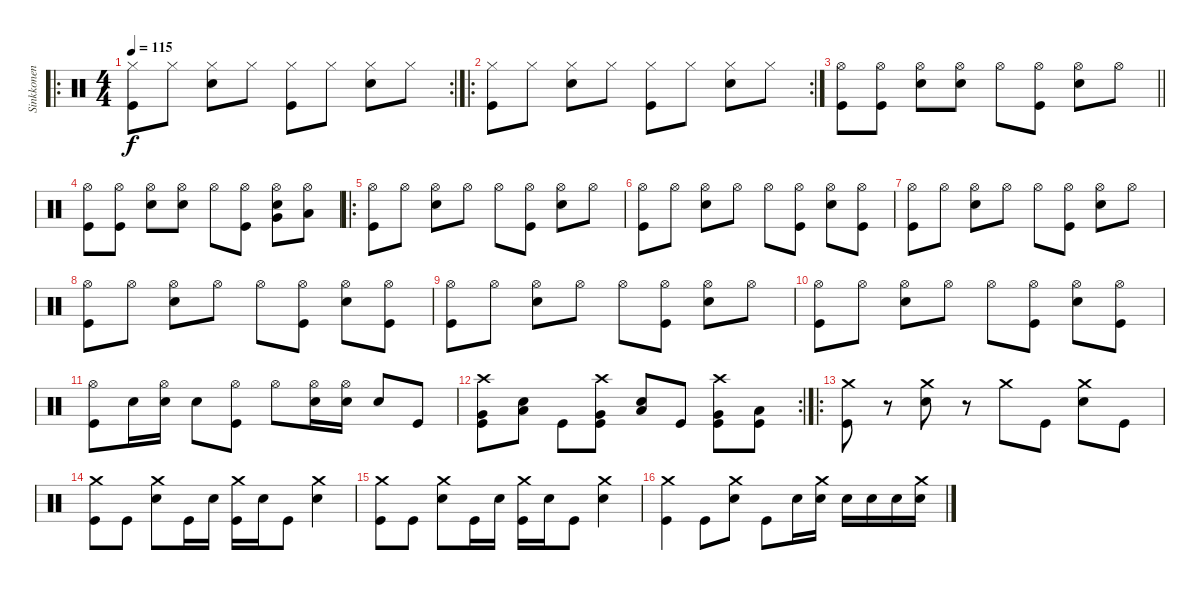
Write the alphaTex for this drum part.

\track ("Sinkkonen" "Sinkkonen") {instrument percussion}
\staff {score}
\articulation defaults
\ro
\rc 2
\ts (4 4)
\tempo 115
\clef neutral
\ks c
("Hi-Hat (closed)" "Kick (hit)").8{dy f} "Hi-Hat (closed)".8 ("Hi-Hat (closed)" "Snare (hit) 2").8 "Hi-Hat (closed)".8 ("Hi-Hat (closed)" "Kick (hit)").8 "Hi-Hat (closed)".8 ("Hi-Hat (closed)" "Snare (hit) 2").8 "Hi-Hat (closed)".8 |
\ro
\rc 2
("Hi-Hat (closed)" "Kick (hit)").8 "Hi-Hat (closed)".8 ("Hi-Hat (closed)" "Snare (hit) 2").8 "Hi-Hat (closed)".8 ("Hi-Hat (closed)" "Kick (hit)").8 "Hi-Hat (closed)".8 ("Hi-Hat (closed)" "Snare (hit) 2").8 "Hi-Hat (closed)".8 |
\barLineRight lightlight
("Hi-Hat (open)" "Kick (hit)").8 ("Hi-Hat (open)" "Kick (hit)").8 ("Hi-Hat (open)" "Snare (hit) 2").8 ("Hi-Hat (open)" "Snare (hit) 2").8 "Hi-Hat (open)".8 ("Hi-Hat (open)" "Kick (hit)").8 ("Hi-Hat (open)" "Snare (hit) 2").8 "Hi-Hat (open)".8 |
("Hi-Hat (open)" "Kick (hit)").8 ("Hi-Hat (open)" "Kick (hit)").8 ("Hi-Hat (open)" "Snare (hit) 2").8 ("Hi-Hat (open)" "Snare (hit) 2").8 "Hi-Hat (open)".8 ("Hi-Hat (open)" "Kick (hit)").8 ("Hi-Hat (open)" "Very Low Tom (hit)" "Snare (hit) 2").8 ("Hi-Hat (open)" "Low Floor Tom (hit)").8 |
\ro
("Hi-Hat (open)" "Kick (hit)").8 "Hi-Hat (open)".8 ("Hi-Hat (open)" "Snare (hit) 2").8 "Hi-Hat (open)".8 "Hi-Hat (open)".8 ("Hi-Hat (open)" "Kick (hit)").8 ("Hi-Hat (open)" "Snare (hit) 2").8 "Hi-Hat (open)".8 |
("Hi-Hat (open)" "Kick (hit)").8 "Hi-Hat (open)".8 ("Hi-Hat (open)" "Snare (hit) 2").8 "Hi-Hat (open)".8 "Hi-Hat (open)".8 ("Hi-Hat (open)" "Kick (hit)").8 ("Hi-Hat (open)" "Snare (hit) 2").8 ("Hi-Hat (open)" "Kick (hit)").8 |
("Hi-Hat (open)" "Kick (hit)").8 "Hi-Hat (open)".8 ("Hi-Hat (open)" "Snare (hit) 2").8 "Hi-Hat (open)".8 "Hi-Hat (open)".8 ("Hi-Hat (open)" "Kick (hit)").8 ("Hi-Hat (open)" "Snare (hit) 2").8 "Hi-Hat (open)".8 |
("Hi-Hat (open)" "Kick (hit)").8 "Hi-Hat (open)".8 ("Hi-Hat (open)" "Snare (hit) 2").8 "Hi-Hat (open)".8 "Hi-Hat (open)".8 ("Hi-Hat (open)" "Kick (hit)").8 ("Hi-Hat (open)" "Snare (hit) 2").8 ("Hi-Hat (open)" "Kick (hit)").8 |
("Hi-Hat (open)" "Kick (hit)").8 "Hi-Hat (open)".8 ("Hi-Hat (open)" "Snare (hit) 2").8 "Hi-Hat (open)".8 "Hi-Hat (open)".8 ("Hi-Hat (open)" "Kick (hit)").8 ("Hi-Hat (open)" "Snare (hit) 2").8 "Hi-Hat (open)".8 |
("Hi-Hat (open)" "Kick (hit)").8 "Hi-Hat (open)".8 ("Hi-Hat (open)" "Snare (hit) 2").8 "Hi-Hat (open)".8 "Hi-Hat (open)".8 ("Hi-Hat (open)" "Kick (hit)").8 ("Hi-Hat (open)" "Snare (hit) 2").8 ("Hi-Hat (open)" "Kick (hit)").8 |
("Hi-Hat (open)" "Kick (hit)").8 "Snare (hit) 2".16 ("Hi-Hat (open)" "Snare (hit) 2").16 "Snare (hit) 2".8 ("Hi-Hat (open)" "Kick (hit)").8 "Hi-Hat (open)".8 ("Hi-Hat (open)" "Snare (hit) 2").16 ("Hi-Hat (open)" "Snare (hit) 2").16 "Snare (hit) 2".8 "Kick (hit)".8 |
\rc 2
("Crash high (hit)" "Very Low Tom (hit)" "Kick (hit)").8 ("Low Floor Tom (hit)" "Snare (hit) 2").8 "Kick (hit)".8 ("Crash high (hit)" "Very Low Tom (hit)" "Kick (hit)").8 ("Low Floor Tom (hit)" "Snare (hit) 2").8 "Kick (hit)".8 ("Crash high (hit)" "Very Low Tom (hit)" "Kick (hit)").8 ("Low Floor Tom (hit)" "Kick (hit)").8 |
\ro
("Crash medium (hit)" "Kick (hit)").8 r.8 ("Crash medium (hit)" "Snare (hit) 2").8 r.8 "Crash medium (hit)".8 "Kick (hit)".8 ("Crash medium (hit)" "Snare (hit) 2").8 "Kick (hit)".8 |
("Crash medium (hit)" "Kick (hit)").8 "Kick (hit)".8 ("Crash medium (hit)" "Snare (hit) 2").8 "Kick (hit)".16 "Snare (hit) 2".16 ("Crash medium (hit)" "Kick (hit)").16 "Snare (hit) 2".16 "Kick (hit)".8 ("Crash medium (hit)" "Snare (hit) 2").4 |
("Crash medium (hit)" "Kick (hit)").8 "Kick (hit)".8 ("Crash medium (hit)" "Snare (hit) 2").8 "Kick (hit)".16 "Snare (hit) 2".16 ("Crash medium (hit)" "Kick (hit)").16 "Snare (hit) 2".16 "Kick (hit)".8 ("Crash medium (hit)" "Snare (hit) 2").4 |
("Crash medium (hit)" "Kick (hit)").4 "Kick (hit)".8 ("Crash medium (hit)" "Snare (hit) 2").8 "Kick (hit)".8 "Snare (hit) 2".16 ("Crash medium (hit)" "Snare (hit) 2").16 "Snare (hit) 2".16 "Snare (hit) 2".16 "Snare (hit) 2".16 ("Crash medium (hit)" "Snare (hit) 2").16
